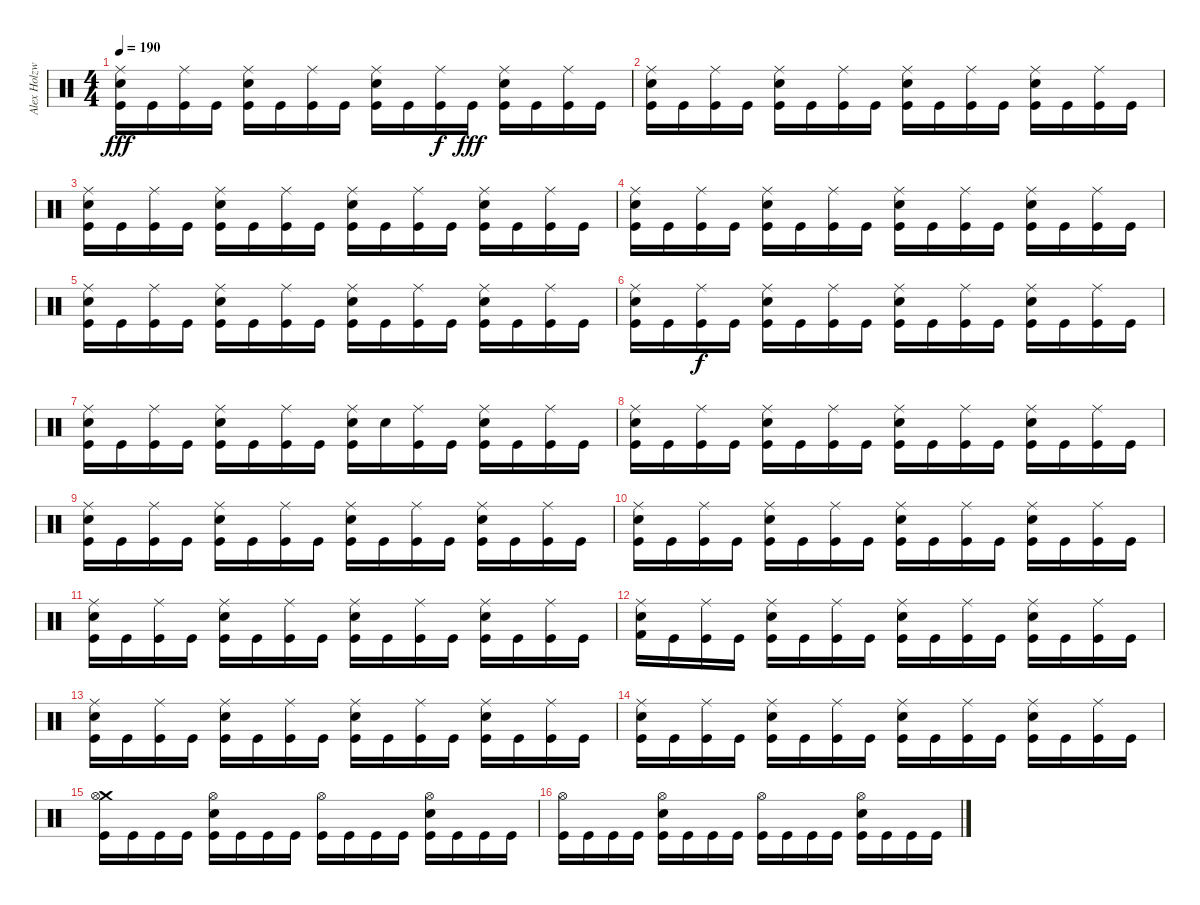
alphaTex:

\track ("Alex Holzwarth" "Alex Holzw") {instrument percussion}
\staff {score}
\articulation defaults
\ts (4 4)
\tempo 190
\clef neutral
\ks c
("Kick (hit)" "Electric Snare (hit)" "Ride (middle)").16{dy fff} "Kick (hit)".16 ("Kick (hit)" "Ride (middle)").16 "Kick (hit)".16 ("Kick (hit)" "Electric Snare (hit)" "Ride (middle)").16 "Kick (hit)".16 ("Kick (hit)" "Ride (middle)").16 "Kick (hit)".16 ("Kick (hit)" "Electric Snare (hit)" "Ride (middle)").16 "Kick (hit)".16 ("Kick (hit)" "Ride (middle)").16{dy f} "Kick (hit)".16{dy fff} ("Kick (hit)" "Electric Snare (hit)" "Ride (middle)").16 "Kick (hit)".16 ("Kick (hit)" "Ride (middle)").16 "Kick (hit)".16 |
("Kick (hit)" "Electric Snare (hit)" "Ride (middle)").16 "Kick (hit)".16 ("Kick (hit)" "Ride (middle)").16 "Kick (hit)".16 ("Kick (hit)" "Electric Snare (hit)" "Ride (middle)").16 "Kick (hit)".16 ("Kick (hit)" "Ride (middle)").16 "Kick (hit)".16 ("Kick (hit)" "Electric Snare (hit)" "Ride (middle)").16 "Kick (hit)".16 ("Kick (hit)" "Ride (middle)").16 "Kick (hit)".16 ("Kick (hit)" "Electric Snare (hit)" "Ride (middle)").16 "Kick (hit)".16 ("Kick (hit)" "Ride (middle)").16 "Kick (hit)".16 |
("Kick (hit)" "Electric Snare (hit)" "Ride (middle)").16 "Kick (hit)".16 ("Kick (hit)" "Ride (middle)").16 "Kick (hit)".16 ("Kick (hit)" "Electric Snare (hit)" "Ride (middle)").16 "Kick (hit)".16 ("Kick (hit)" "Ride (middle)").16 "Kick (hit)".16 ("Kick (hit)" "Electric Snare (hit)" "Ride (middle)").16 "Kick (hit)".16 ("Kick (hit)" "Ride (middle)").16 "Kick (hit)".16 ("Kick (hit)" "Electric Snare (hit)" "Ride (middle)").16 "Kick (hit)".16 ("Kick (hit)" "Ride (middle)").16 "Kick (hit)".16 |
("Kick (hit)" "Electric Snare (hit)" "Ride (middle)").16 "Kick (hit)".16 ("Kick (hit)" "Ride (middle)").16 "Kick (hit)".16 ("Kick (hit)" "Electric Snare (hit)" "Ride (middle)").16 "Kick (hit)".16 ("Kick (hit)" "Ride (middle)").16 "Kick (hit)".16 ("Kick (hit)" "Electric Snare (hit)" "Ride (middle)").16 "Kick (hit)".16 ("Kick (hit)" "Ride (middle)").16 "Kick (hit)".16 ("Kick (hit)" "Electric Snare (hit)" "Ride (middle)").16 "Kick (hit)".16 ("Kick (hit)" "Ride (middle)").16 "Kick (hit)".16 |
("Kick (hit)" "Electric Snare (hit)" "Ride (middle)").16 "Kick (hit)".16 ("Kick (hit)" "Ride (middle)").16 "Kick (hit)".16 ("Kick (hit)" "Electric Snare (hit)" "Ride (middle)").16 "Kick (hit)".16 ("Kick (hit)" "Ride (middle)").16 "Kick (hit)".16 ("Kick (hit)" "Electric Snare (hit)" "Ride (middle)").16 "Kick (hit)".16 ("Kick (hit)" "Ride (middle)").16 "Kick (hit)".16 ("Kick (hit)" "Electric Snare (hit)" "Ride (middle)").16 "Kick (hit)".16 ("Kick (hit)" "Ride (middle)").16 "Kick (hit)".16 |
("Kick (hit)" "Electric Snare (hit)" "Ride (middle)").16 "Kick (hit)".16 ("Kick (hit)" "Ride (middle)").16{dy f} "Kick (hit)".16 ("Kick (hit)" "Electric Snare (hit)" "Ride (middle)").16 "Kick (hit)".16 ("Kick (hit)" "Ride (middle)").16 "Kick (hit)".16 ("Kick (hit)" "Electric Snare (hit)" "Ride (middle)").16 "Kick (hit)".16 ("Kick (hit)" "Ride (middle)").16 "Kick (hit)".16 ("Kick (hit)" "Electric Snare (hit)" "Ride (middle)").16 "Kick (hit)".16 ("Kick (hit)" "Ride (middle)").16 "Kick (hit)".16 |
("Kick (hit)" "Electric Snare (hit)" "Ride (middle)").16 "Kick (hit)".16 ("Kick (hit)" "Ride (middle)").16 "Kick (hit)".16 ("Kick (hit)" "Electric Snare (hit)" "Ride (middle)").16 "Kick (hit)".16 ("Kick (hit)" "Ride (middle)").16 "Kick (hit)".16 ("Kick (hit)" "Electric Snare (hit)" "Ride (middle)").16 "Snare (hit)".16 ("Kick (hit)" "Ride (middle)").16 "Kick (hit)".16 ("Kick (hit)" "Electric Snare (hit)" "Ride (middle)").16 "Kick (hit)".16 ("Kick (hit)" "Ride (middle)").16 "Kick (hit)".16 |
("Kick (hit)" "Electric Snare (hit)" "Ride (middle)").16 "Kick (hit)".16 ("Kick (hit)" "Ride (middle)").16 "Kick (hit)".16 ("Kick (hit)" "Electric Snare (hit)" "Ride (middle)").16 "Kick (hit)".16 ("Kick (hit)" "Ride (middle)").16 "Kick (hit)".16 ("Kick (hit)" "Electric Snare (hit)" "Ride (middle)").16 "Kick (hit)".16 ("Kick (hit)" "Ride (middle)").16 "Kick (hit)".16 ("Kick (hit)" "Electric Snare (hit)" "Ride (middle)").16 "Kick (hit)".16 ("Kick (hit)" "Ride (middle)").16 "Kick (hit)".16 |
("Kick (hit)" "Electric Snare (hit)" "Ride (middle)").16 "Kick (hit)".16 ("Kick (hit)" "Ride (middle)").16 "Kick (hit)".16 ("Kick (hit)" "Electric Snare (hit)" "Ride (middle)").16 "Kick (hit)".16 ("Kick (hit)" "Ride (middle)").16 "Kick (hit)".16 ("Kick (hit)" "Electric Snare (hit)" "Ride (middle)").16 "Kick (hit)".16 ("Kick (hit)" "Ride (middle)").16 "Kick (hit)".16 ("Kick (hit)" "Electric Snare (hit)" "Ride (middle)").16 "Kick (hit)".16 ("Kick (hit)" "Ride (middle)").16 "Kick (hit)".16 |
("Kick (hit)" "Electric Snare (hit)" "Ride (middle)").16 "Kick (hit)".16 ("Kick (hit)" "Ride (middle)").16 "Kick (hit)".16 ("Kick (hit)" "Electric Snare (hit)" "Ride (middle)").16 "Kick (hit)".16 ("Kick (hit)" "Ride (middle)").16 "Kick (hit)".16 ("Kick (hit)" "Electric Snare (hit)" "Ride (middle)").16 "Kick (hit)".16 ("Kick (hit)" "Ride (middle)").16 "Kick (hit)".16 ("Kick (hit)" "Electric Snare (hit)" "Ride (middle)").16 "Kick (hit)".16 ("Kick (hit)" "Ride (middle)").16 "Kick (hit)".16 |
("Kick (hit)" "Electric Snare (hit)" "Ride (middle)").16 "Kick (hit)".16 ("Kick (hit)" "Ride (middle)").16 "Kick (hit)".16 ("Kick (hit)" "Electric Snare (hit)" "Ride (middle)").16 "Kick (hit)".16 ("Kick (hit)" "Ride (middle)").16 "Kick (hit)".16 ("Kick (hit)" "Electric Snare (hit)" "Ride (middle)").16 "Kick (hit)".16 ("Kick (hit)" "Ride (middle)").16 "Kick (hit)".16 ("Kick (hit)" "Electric Snare (hit)" "Ride (middle)").16 "Kick (hit)".16 ("Kick (hit)" "Ride (middle)").16 "Kick (hit)".16 |
("Kick (hit) 2" "Electric Snare (hit)" "Ride (middle)").16 "Kick (hit)".16 ("Kick (hit)" "Ride (middle)").16 "Kick (hit)".16 ("Kick (hit)" "Electric Snare (hit)" "Ride (middle)").16 "Kick (hit)".16 ("Kick (hit)" "Ride (middle)").16 "Kick (hit)".16 ("Kick (hit)" "Electric Snare (hit)" "Ride (middle)").16 "Kick (hit)".16 ("Kick (hit)" "Ride (middle)").16 "Kick (hit)".16 ("Kick (hit)" "Electric Snare (hit)" "Ride (middle)").16 "Kick (hit)".16 ("Kick (hit)" "Ride (middle)").16 "Kick (hit)".16 |
("Kick (hit)" "Electric Snare (hit)" "Ride (middle)").16 "Kick (hit)".16 ("Kick (hit)" "Ride (middle)").16 "Kick (hit)".16 ("Kick (hit)" "Electric Snare (hit)" "Ride (middle)").16 "Kick (hit)".16 ("Kick (hit)" "Ride (middle)").16 "Kick (hit)".16 ("Kick (hit)" "Electric Snare (hit)" "Ride (middle)").16 "Kick (hit)".16 ("Kick (hit)" "Ride (middle)").16 "Kick (hit)".16 ("Kick (hit)" "Electric Snare (hit)" "Ride (middle)").16 "Kick (hit)".16 ("Kick (hit)" "Ride (middle)").16 "Kick (hit)".16 |
("Kick (hit)" "Electric Snare (hit)" "Ride (middle)").16 "Kick (hit)".16 ("Kick (hit)" "Ride (middle)").16 "Kick (hit)".16 ("Kick (hit)" "Electric Snare (hit)" "Ride (middle)").16 "Kick (hit)".16 ("Kick (hit)" "Ride (middle)").16 "Kick (hit)".16 ("Kick (hit)" "Electric Snare (hit)" "Ride (middle)").16 "Kick (hit)".16 ("Kick (hit)" "Ride (middle)").16 "Kick (hit)".16 ("Kick (hit)" "Electric Snare (hit)" "Ride (middle)").16 "Kick (hit)".16 ("Kick (hit)" "Ride (middle)").16 "Kick (hit)".16 |
("Kick (hit)" "Crash medium (hit)" "Hi-Hat (open)").16 "Kick (hit)".16 "Kick (hit)".16 "Kick (hit)".16 ("Kick (hit)" "Electric Snare (hit)" "Hi-Hat (open)").16 "Kick (hit)".16 "Kick (hit)".16 "Kick (hit)".16 ("Kick (hit)" "Hi-Hat (open)").16 "Kick (hit)".16 "Kick (hit)".16 "Kick (hit)".16 ("Kick (hit)" "Electric Snare (hit)" "Hi-Hat (open)").16 "Kick (hit)".16 "Kick (hit)".16 "Kick (hit)".16 |
("Kick (hit)" "Hi-Hat (open)").16 "Kick (hit)".16 "Kick (hit)".16 "Kick (hit)".16 ("Kick (hit)" "Electric Snare (hit)" "Hi-Hat (open)").16 "Kick (hit)".16 "Kick (hit)".16 "Kick (hit)".16 ("Kick (hit)" "Hi-Hat (open)").16 "Kick (hit)".16 "Kick (hit)".16 "Kick (hit)".16 ("Kick (hit)" "Electric Snare (hit)" "Hi-Hat (open)").16 "Kick (hit)".16 "Kick (hit)".16 "Kick (hit)".16
